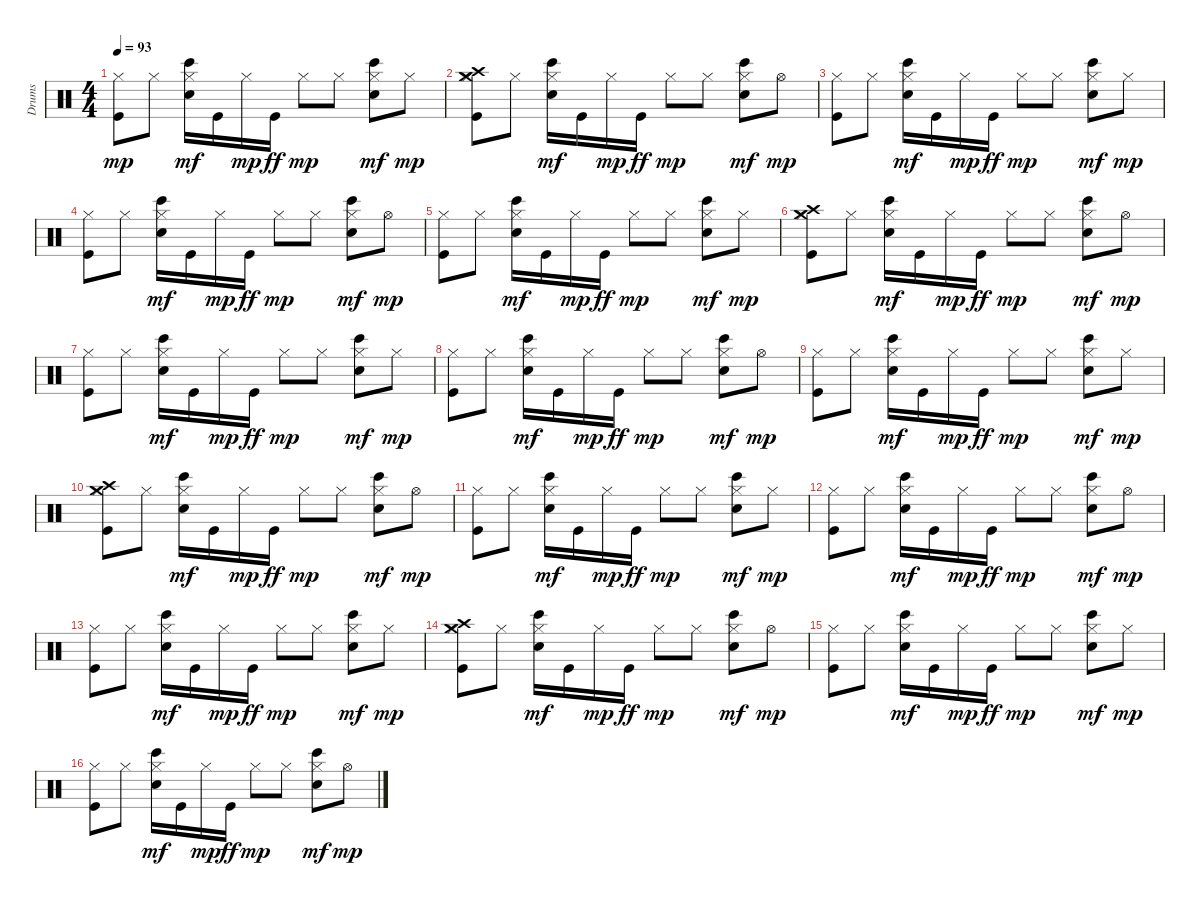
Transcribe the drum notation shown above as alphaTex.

\track ("Drums" "Drums") {instrument percussion}
\staff {score}
\articulation defaults
\ts (4 4)
\tempo 93
\clef neutral
\ks c
("Kick (hit)" "Hi-Hat (closed)").8{dy mp} "Hi-Hat (closed)".8 ("Hi-Hat (closed)" "Electric Snare (hit)" "Bongo High (hit)").16{dy mf} "Kick (hit)".16 "Hi-Hat (closed)".16{dy mp} "Kick (hit)".16{dy ff} "Hi-Hat (closed)".8{dy mp} "Hi-Hat (closed)".8 ("Hi-Hat (closed)" "Electric Snare (hit)" "Bongo High (hit)").8{dy mf} "Hi-Hat (closed)".8{dy mp} |
("Crash high (hit)" "Crash medium (hit)" "Kick (hit)" "Hi-Hat (closed)").8 "Hi-Hat (closed)".8 ("Hi-Hat (closed)" "Electric Snare (hit)" "Bongo High (hit)").16{dy mf} "Kick (hit)".16 "Hi-Hat (closed)".16{dy mp} "Kick (hit)".16{dy ff} "Hi-Hat (closed)".8{dy mp} "Hi-Hat (closed)".8 ("Hi-Hat (closed)" "Electric Snare (hit)" "Bongo High (hit)").8{dy mf} "Hi-Hat (open)".8{dy mp} |
("Kick (hit)" "Hi-Hat (closed)").8 "Hi-Hat (closed)".8 ("Hi-Hat (closed)" "Electric Snare (hit)" "Bongo High (hit)").16{dy mf} "Kick (hit)".16 "Hi-Hat (closed)".16{dy mp} "Kick (hit)".16{dy ff} "Hi-Hat (closed)".8{dy mp} "Hi-Hat (closed)".8 ("Hi-Hat (closed)" "Electric Snare (hit)" "Bongo High (hit)").8{dy mf} "Hi-Hat (closed)".8{dy mp} |
("Kick (hit)" "Hi-Hat (closed)").8 "Hi-Hat (closed)".8 ("Hi-Hat (closed)" "Electric Snare (hit)" "Bongo High (hit)").16{dy mf} "Kick (hit)".16 "Hi-Hat (closed)".16{dy mp} "Kick (hit)".16{dy ff} "Hi-Hat (closed)".8{dy mp} "Hi-Hat (closed)".8 ("Hi-Hat (closed)" "Electric Snare (hit)" "Bongo High (hit)").8{dy mf} "Hi-Hat (open)".8{dy mp} |
("Kick (hit)" "Hi-Hat (closed)").8 "Hi-Hat (closed)".8 ("Hi-Hat (closed)" "Electric Snare (hit)" "Bongo High (hit)").16{dy mf} "Kick (hit)".16 "Hi-Hat (closed)".16{dy mp} "Kick (hit)".16{dy ff} "Hi-Hat (closed)".8{dy mp} "Hi-Hat (closed)".8 ("Hi-Hat (closed)" "Electric Snare (hit)" "Bongo High (hit)").8{dy mf} "Hi-Hat (closed)".8{dy mp} |
("Crash high (hit)" "Crash medium (hit)" "Kick (hit)" "Hi-Hat (closed)").8 "Hi-Hat (closed)".8 ("Hi-Hat (closed)" "Electric Snare (hit)" "Bongo High (hit)").16{dy mf} "Kick (hit)".16 "Hi-Hat (closed)".16{dy mp} "Kick (hit)".16{dy ff} "Hi-Hat (closed)".8{dy mp} "Hi-Hat (closed)".8 ("Hi-Hat (closed)" "Electric Snare (hit)" "Bongo High (hit)").8{dy mf} "Hi-Hat (open)".8{dy mp} |
("Kick (hit)" "Hi-Hat (closed)").8 "Hi-Hat (closed)".8 ("Hi-Hat (closed)" "Electric Snare (hit)" "Bongo High (hit)").16{dy mf} "Kick (hit)".16 "Hi-Hat (closed)".16{dy mp} "Kick (hit)".16{dy ff} "Hi-Hat (closed)".8{dy mp} "Hi-Hat (closed)".8 ("Hi-Hat (closed)" "Electric Snare (hit)" "Bongo High (hit)").8{dy mf} "Hi-Hat (closed)".8{dy mp} |
("Kick (hit)" "Hi-Hat (closed)").8 "Hi-Hat (closed)".8 ("Hi-Hat (closed)" "Electric Snare (hit)" "Bongo High (hit)").16{dy mf} "Kick (hit)".16 "Hi-Hat (closed)".16{dy mp} "Kick (hit)".16{dy ff} "Hi-Hat (closed)".8{dy mp} "Hi-Hat (closed)".8 ("Hi-Hat (closed)" "Electric Snare (hit)" "Bongo High (hit)").8{dy mf} "Hi-Hat (open)".8{dy mp} |
("Kick (hit)" "Hi-Hat (closed)").8 "Hi-Hat (closed)".8 ("Hi-Hat (closed)" "Electric Snare (hit)" "Bongo High (hit)").16{dy mf} "Kick (hit)".16 "Hi-Hat (closed)".16{dy mp} "Kick (hit)".16{dy ff} "Hi-Hat (closed)".8{dy mp} "Hi-Hat (closed)".8 ("Hi-Hat (closed)" "Electric Snare (hit)" "Bongo High (hit)").8{dy mf} "Hi-Hat (closed)".8{dy mp} |
("Crash high (hit)" "Crash medium (hit)" "Kick (hit)" "Hi-Hat (closed)").8 "Hi-Hat (closed)".8 ("Hi-Hat (closed)" "Electric Snare (hit)" "Bongo High (hit)").16{dy mf} "Kick (hit)".16 "Hi-Hat (closed)".16{dy mp} "Kick (hit)".16{dy ff} "Hi-Hat (closed)".8{dy mp} "Hi-Hat (closed)".8 ("Hi-Hat (closed)" "Electric Snare (hit)" "Bongo High (hit)").8{dy mf} "Hi-Hat (open)".8{dy mp} |
("Kick (hit)" "Hi-Hat (closed)").8 "Hi-Hat (closed)".8 ("Hi-Hat (closed)" "Electric Snare (hit)" "Bongo High (hit)").16{dy mf} "Kick (hit)".16 "Hi-Hat (closed)".16{dy mp} "Kick (hit)".16{dy ff} "Hi-Hat (closed)".8{dy mp} "Hi-Hat (closed)".8 ("Hi-Hat (closed)" "Electric Snare (hit)" "Bongo High (hit)").8{dy mf} "Hi-Hat (closed)".8{dy mp} |
("Kick (hit)" "Hi-Hat (closed)").8 "Hi-Hat (closed)".8 ("Hi-Hat (closed)" "Electric Snare (hit)" "Bongo High (hit)").16{dy mf} "Kick (hit)".16 "Hi-Hat (closed)".16{dy mp} "Kick (hit)".16{dy ff} "Hi-Hat (closed)".8{dy mp} "Hi-Hat (closed)".8 ("Hi-Hat (closed)" "Electric Snare (hit)" "Bongo High (hit)").8{dy mf} "Hi-Hat (open)".8{dy mp} |
("Kick (hit)" "Hi-Hat (closed)").8 "Hi-Hat (closed)".8 ("Hi-Hat (closed)" "Electric Snare (hit)" "Bongo High (hit)").16{dy mf} "Kick (hit)".16 "Hi-Hat (closed)".16{dy mp} "Kick (hit)".16{dy ff} "Hi-Hat (closed)".8{dy mp} "Hi-Hat (closed)".8 ("Hi-Hat (closed)" "Electric Snare (hit)" "Bongo High (hit)").8{dy mf} "Hi-Hat (closed)".8{dy mp} |
("Crash high (hit)" "Crash medium (hit)" "Kick (hit)" "Hi-Hat (closed)").8 "Hi-Hat (closed)".8 ("Hi-Hat (closed)" "Electric Snare (hit)" "Bongo High (hit)").16{dy mf} "Kick (hit)".16 "Hi-Hat (closed)".16{dy mp} "Kick (hit)".16{dy ff} "Hi-Hat (closed)".8{dy mp} "Hi-Hat (closed)".8 ("Hi-Hat (closed)" "Electric Snare (hit)" "Bongo High (hit)").8{dy mf} "Hi-Hat (open)".8{dy mp} |
("Kick (hit)" "Hi-Hat (closed)").8 "Hi-Hat (closed)".8 ("Hi-Hat (closed)" "Electric Snare (hit)" "Bongo High (hit)").16{dy mf} "Kick (hit)".16 "Hi-Hat (closed)".16{dy mp} "Kick (hit)".16{dy ff} "Hi-Hat (closed)".8{dy mp} "Hi-Hat (closed)".8 ("Hi-Hat (closed)" "Electric Snare (hit)" "Bongo High (hit)").8{dy mf} "Hi-Hat (closed)".8{dy mp} |
("Kick (hit)" "Hi-Hat (closed)").8 "Hi-Hat (closed)".8 ("Hi-Hat (closed)" "Electric Snare (hit)" "Bongo High (hit)").16{dy mf} "Kick (hit)".16 "Hi-Hat (closed)".16{dy mp} "Kick (hit)".16{dy ff} "Hi-Hat (closed)".8{dy mp} "Hi-Hat (closed)".8 ("Hi-Hat (closed)" "Electric Snare (hit)" "Bongo High (hit)").8{dy mf} "Hi-Hat (open)".8{dy mp}
